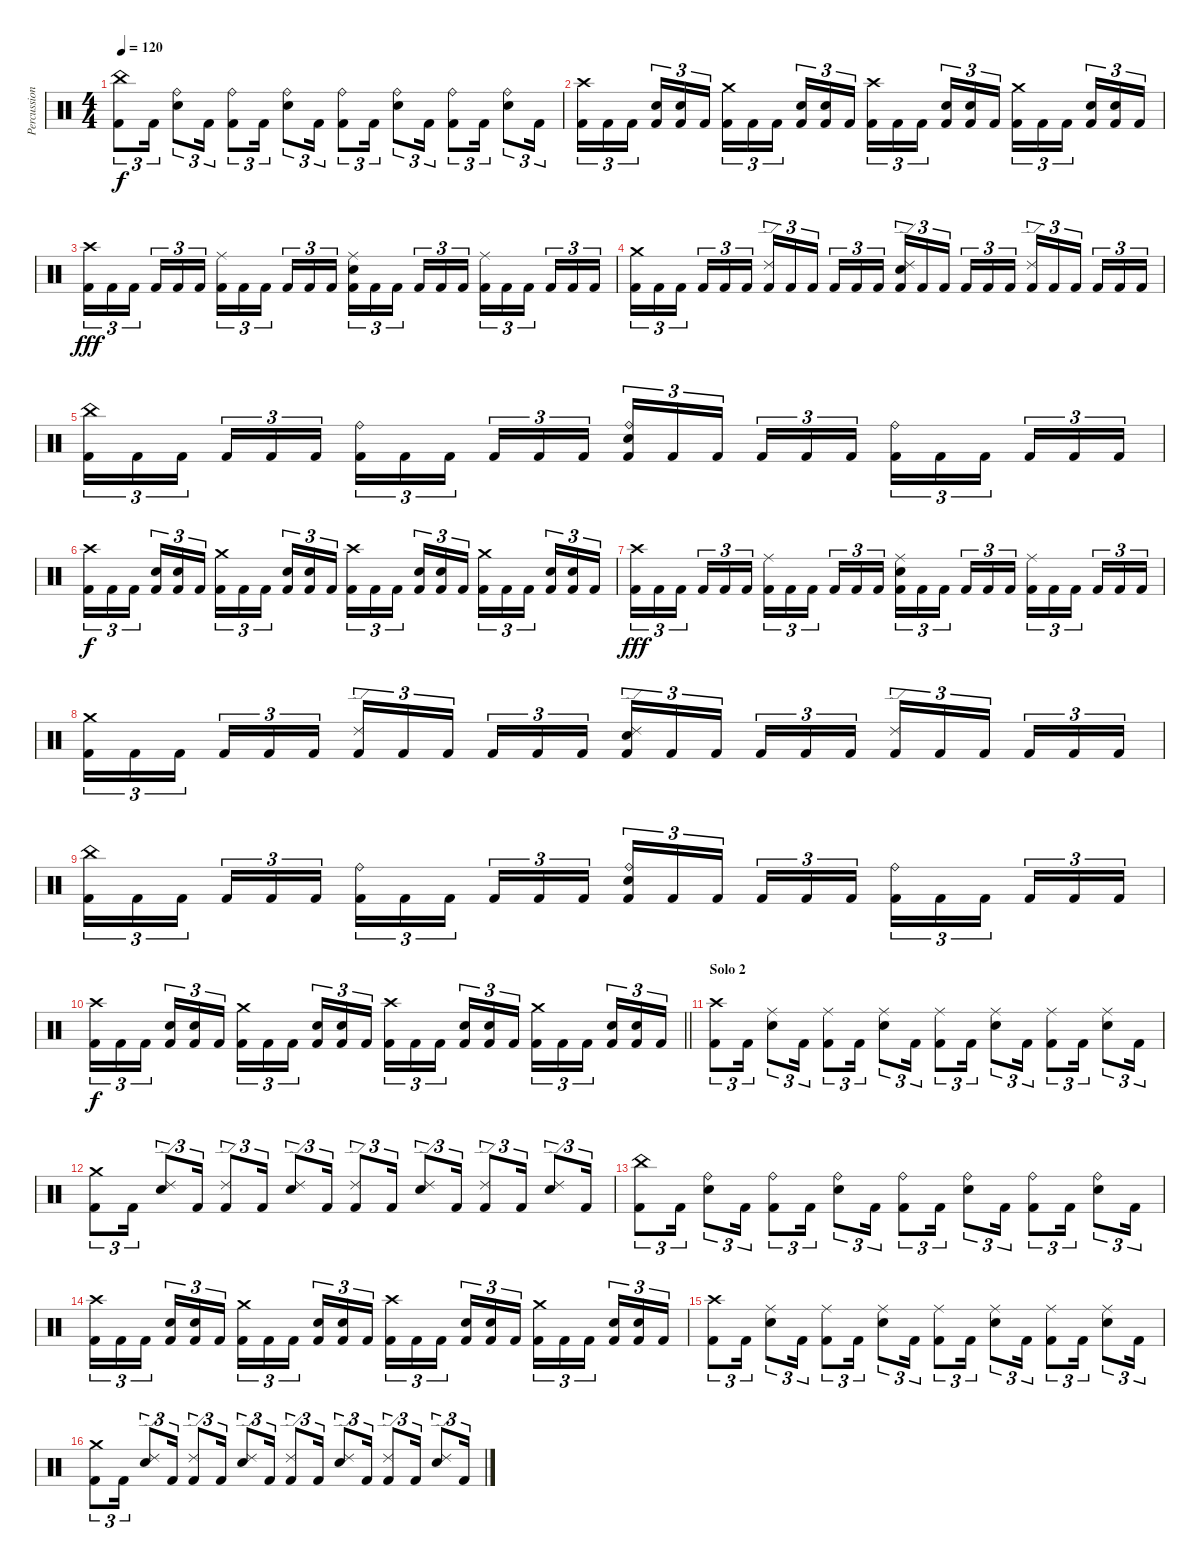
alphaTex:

\track ("Percussion" "Percussion") {instrument percussion}
\staff {score}
\articulation defaults
\ts (4 4)
\tempo 120
\clef neutral
\ks c
("China (hit)" "Kick (hit) 2").8{tu (3 2) dy f} "Kick (hit) 2".16{tu (3 2)} ("Ride (bell)" "Electric Snare (hit)").8{tu (3 2)} "Kick (hit) 2".16{tu (3 2)} ("Ride (bell)" "Kick (hit) 2").8{tu (3 2)} "Kick (hit) 2".16{tu (3 2)} ("Ride (bell)" "Electric Snare (hit)").8{tu (3 2)} "Kick (hit) 2".16{tu (3 2)} ("Ride (bell)" "Kick (hit) 2").8{tu (3 2)} "Kick (hit) 2".16{tu (3 2)} ("Ride (bell)" "Electric Snare (hit)").8{tu (3 2)} "Kick (hit) 2".16{tu (3 2)} ("Ride (bell)" "Kick (hit) 2").8{tu (3 2)} "Kick (hit) 2".16{tu (3 2)} ("Ride (bell)" "Electric Snare (hit)").8{tu (3 2)} "Kick (hit) 2".16{tu (3 2)} |
("Crash high (hit)" "Kick (hit) 2").16{tu (3 2)} "Kick (hit) 2".16{tu (3 2)} "Kick (hit) 2".16{tu (3 2) beam splitsecondary} ("Electric Snare (hit)" "Kick (hit) 2").16{tu (3 2)} ("Electric Snare (hit)" "Kick (hit) 2").16{tu (3 2)} "Kick (hit) 2".16{tu (3 2)} ("Crash medium (hit)" "Kick (hit) 2").16{tu (3 2)} "Kick (hit) 2".16{tu (3 2)} "Kick (hit) 2".16{tu (3 2) beam splitsecondary} ("Electric Snare (hit)" "Kick (hit) 2").16{tu (3 2)} ("Electric Snare (hit)" "Kick (hit) 2").16{tu (3 2)} "Kick (hit) 2".16{tu (3 2)} ("Crash high (hit)" "Kick (hit) 2").16{tu (3 2)} "Kick (hit) 2".16{tu (3 2)} "Kick (hit) 2".16{tu (3 2) beam splitsecondary} ("Electric Snare (hit)" "Kick (hit) 2").16{tu (3 2)} ("Electric Snare (hit)" "Kick (hit) 2").16{tu (3 2)} "Kick (hit) 2".16{tu (3 2)} ("Crash medium (hit)" "Kick (hit) 2").16{tu (3 2)} "Kick (hit) 2".16{tu (3 2)} "Kick (hit) 2".16{tu (3 2) beam splitsecondary} ("Electric Snare (hit)" "Kick (hit) 2").16{tu (3 2)} ("Electric Snare (hit)" "Kick (hit) 2").16{tu (3 2)} "Kick (hit) 2".16{tu (3 2)} |
("Crash high (hit)" "Kick (hit) 2").16{tu (3 2) dy fff} "Kick (hit) 2".16{tu (3 2)} "Kick (hit) 2".16{tu (3 2) beam splitsecondary} "Kick (hit) 2".16{tu (3 2)} "Kick (hit) 2".16{tu (3 2)} "Kick (hit) 2".16{tu (3 2)} ("Ride (middle)" "Kick (hit) 2").16{tu (3 2)} "Kick (hit) 2".16{tu (3 2)} "Kick (hit) 2".16{tu (3 2) beam splitsecondary} "Kick (hit) 2".16{tu (3 2)} "Kick (hit) 2".16{tu (3 2)} "Kick (hit) 2".16{tu (3 2)} ("Ride (middle)" "Electric Snare (hit)" "Kick (hit) 2").16{tu (3 2)} "Kick (hit) 2".16{tu (3 2)} "Kick (hit) 2".16{tu (3 2) beam splitsecondary} "Kick (hit) 2".16{tu (3 2)} "Kick (hit) 2".16{tu (3 2)} "Kick (hit) 2".16{tu (3 2)} ("Ride (middle)" "Kick (hit) 2").16{tu (3 2)} "Kick (hit) 2".16{tu (3 2)} "Kick (hit) 2".16{tu (3 2) beam splitsecondary} "Kick (hit) 2".16{tu (3 2)} "Kick (hit) 2".16{tu (3 2)} "Kick (hit) 2".16{tu (3 2)} |
("Crash medium (hit)" "Kick (hit) 2").16{tu (3 2)} "Kick (hit) 2".16{tu (3 2)} "Kick (hit) 2".16{tu (3 2) beam splitsecondary} "Kick (hit) 2".16{tu (3 2)} "Kick (hit) 2".16{tu (3 2)} "Kick (hit) 2".16{tu (3 2)} ("Ride (edge) 2" "Kick (hit) 2").16{tu (3 2)} "Kick (hit) 2".16{tu (3 2)} "Kick (hit) 2".16{tu (3 2) beam splitsecondary} "Kick (hit) 2".16{tu (3 2)} "Kick (hit) 2".16{tu (3 2)} "Kick (hit) 2".16{tu (3 2)} ("Ride (edge) 2" "Electric Snare (hit)" "Kick (hit) 2").16{tu (3 2)} "Kick (hit) 2".16{tu (3 2)} "Kick (hit) 2".16{tu (3 2) beam splitsecondary} "Kick (hit) 2".16{tu (3 2)} "Kick (hit) 2".16{tu (3 2)} "Kick (hit) 2".16{tu (3 2)} ("Ride (edge) 2" "Kick (hit) 2").16{tu (3 2)} "Kick (hit) 2".16{tu (3 2)} "Kick (hit) 2".16{tu (3 2) beam splitsecondary} "Kick (hit) 2".16{tu (3 2)} "Kick (hit) 2".16{tu (3 2)} "Kick (hit) 2".16{tu (3 2)} |
("China (hit)" "Kick (hit) 2").16{tu (3 2)} "Kick (hit) 2".16{tu (3 2)} "Kick (hit) 2".16{tu (3 2) beam splitsecondary} "Kick (hit) 2".16{tu (3 2)} "Kick (hit) 2".16{tu (3 2)} "Kick (hit) 2".16{tu (3 2)} ("Ride (bell)" "Kick (hit) 2").16{tu (3 2)} "Kick (hit) 2".16{tu (3 2)} "Kick (hit) 2".16{tu (3 2) beam splitsecondary} "Kick (hit) 2".16{tu (3 2)} "Kick (hit) 2".16{tu (3 2)} "Kick (hit) 2".16{tu (3 2)} ("Ride (bell)" "Electric Snare (hit)" "Kick (hit) 2").16{tu (3 2)} "Kick (hit) 2".16{tu (3 2)} "Kick (hit) 2".16{tu (3 2) beam splitsecondary} "Kick (hit) 2".16{tu (3 2)} "Kick (hit) 2".16{tu (3 2)} "Kick (hit) 2".16{tu (3 2)} ("Ride (bell)" "Kick (hit) 2").16{tu (3 2)} "Kick (hit) 2".16{tu (3 2)} "Kick (hit) 2".16{tu (3 2) beam splitsecondary} "Kick (hit) 2".16{tu (3 2)} "Kick (hit) 2".16{tu (3 2)} "Kick (hit) 2".16{tu (3 2)} |
("Crash high (hit)" "Kick (hit) 2").16{tu (3 2) dy f} "Kick (hit) 2".16{tu (3 2)} "Kick (hit) 2".16{tu (3 2) beam splitsecondary} ("Electric Snare (hit)" "Kick (hit) 2").16{tu (3 2)} ("Electric Snare (hit)" "Kick (hit) 2").16{tu (3 2)} "Kick (hit) 2".16{tu (3 2)} ("Crash medium (hit)" "Kick (hit) 2").16{tu (3 2)} "Kick (hit) 2".16{tu (3 2)} "Kick (hit) 2".16{tu (3 2) beam splitsecondary} ("Electric Snare (hit)" "Kick (hit) 2").16{tu (3 2)} ("Electric Snare (hit)" "Kick (hit) 2").16{tu (3 2)} "Kick (hit) 2".16{tu (3 2)} ("Crash high (hit)" "Kick (hit) 2").16{tu (3 2)} "Kick (hit) 2".16{tu (3 2)} "Kick (hit) 2".16{tu (3 2) beam splitsecondary} ("Electric Snare (hit)" "Kick (hit) 2").16{tu (3 2)} ("Electric Snare (hit)" "Kick (hit) 2").16{tu (3 2)} "Kick (hit) 2".16{tu (3 2)} ("Crash medium (hit)" "Kick (hit) 2").16{tu (3 2)} "Kick (hit) 2".16{tu (3 2)} "Kick (hit) 2".16{tu (3 2) beam splitsecondary} ("Electric Snare (hit)" "Kick (hit) 2").16{tu (3 2)} ("Electric Snare (hit)" "Kick (hit) 2").16{tu (3 2)} "Kick (hit) 2".16{tu (3 2)} |
("Crash high (hit)" "Kick (hit) 2").16{tu (3 2) dy fff} "Kick (hit) 2".16{tu (3 2)} "Kick (hit) 2".16{tu (3 2) beam splitsecondary} "Kick (hit) 2".16{tu (3 2)} "Kick (hit) 2".16{tu (3 2)} "Kick (hit) 2".16{tu (3 2)} ("Ride (middle)" "Kick (hit) 2").16{tu (3 2)} "Kick (hit) 2".16{tu (3 2)} "Kick (hit) 2".16{tu (3 2) beam splitsecondary} "Kick (hit) 2".16{tu (3 2)} "Kick (hit) 2".16{tu (3 2)} "Kick (hit) 2".16{tu (3 2)} ("Ride (middle)" "Electric Snare (hit)" "Kick (hit) 2").16{tu (3 2)} "Kick (hit) 2".16{tu (3 2)} "Kick (hit) 2".16{tu (3 2) beam splitsecondary} "Kick (hit) 2".16{tu (3 2)} "Kick (hit) 2".16{tu (3 2)} "Kick (hit) 2".16{tu (3 2)} ("Ride (middle)" "Kick (hit) 2").16{tu (3 2)} "Kick (hit) 2".16{tu (3 2)} "Kick (hit) 2".16{tu (3 2) beam splitsecondary} "Kick (hit) 2".16{tu (3 2)} "Kick (hit) 2".16{tu (3 2)} "Kick (hit) 2".16{tu (3 2)} |
("Crash medium (hit)" "Kick (hit) 2").16{tu (3 2)} "Kick (hit) 2".16{tu (3 2)} "Kick (hit) 2".16{tu (3 2) beam splitsecondary} "Kick (hit) 2".16{tu (3 2)} "Kick (hit) 2".16{tu (3 2)} "Kick (hit) 2".16{tu (3 2)} ("Ride (edge) 2" "Kick (hit) 2").16{tu (3 2)} "Kick (hit) 2".16{tu (3 2)} "Kick (hit) 2".16{tu (3 2) beam splitsecondary} "Kick (hit) 2".16{tu (3 2)} "Kick (hit) 2".16{tu (3 2)} "Kick (hit) 2".16{tu (3 2)} ("Ride (edge) 2" "Electric Snare (hit)" "Kick (hit) 2").16{tu (3 2)} "Kick (hit) 2".16{tu (3 2)} "Kick (hit) 2".16{tu (3 2) beam splitsecondary} "Kick (hit) 2".16{tu (3 2)} "Kick (hit) 2".16{tu (3 2)} "Kick (hit) 2".16{tu (3 2)} ("Ride (edge) 2" "Kick (hit) 2").16{tu (3 2)} "Kick (hit) 2".16{tu (3 2)} "Kick (hit) 2".16{tu (3 2) beam splitsecondary} "Kick (hit) 2".16{tu (3 2)} "Kick (hit) 2".16{tu (3 2)} "Kick (hit) 2".16{tu (3 2)} |
("China (hit)" "Kick (hit) 2").16{tu (3 2)} "Kick (hit) 2".16{tu (3 2)} "Kick (hit) 2".16{tu (3 2) beam splitsecondary} "Kick (hit) 2".16{tu (3 2)} "Kick (hit) 2".16{tu (3 2)} "Kick (hit) 2".16{tu (3 2)} ("Ride (bell)" "Kick (hit) 2").16{tu (3 2)} "Kick (hit) 2".16{tu (3 2)} "Kick (hit) 2".16{tu (3 2) beam splitsecondary} "Kick (hit) 2".16{tu (3 2)} "Kick (hit) 2".16{tu (3 2)} "Kick (hit) 2".16{tu (3 2)} ("Ride (bell)" "Electric Snare (hit)" "Kick (hit) 2").16{tu (3 2)} "Kick (hit) 2".16{tu (3 2)} "Kick (hit) 2".16{tu (3 2) beam splitsecondary} "Kick (hit) 2".16{tu (3 2)} "Kick (hit) 2".16{tu (3 2)} "Kick (hit) 2".16{tu (3 2)} ("Ride (bell)" "Kick (hit) 2").16{tu (3 2)} "Kick (hit) 2".16{tu (3 2)} "Kick (hit) 2".16{tu (3 2) beam splitsecondary} "Kick (hit) 2".16{tu (3 2)} "Kick (hit) 2".16{tu (3 2)} "Kick (hit) 2".16{tu (3 2)} |
\barLineRight lightlight
("Crash high (hit)" "Kick (hit) 2").16{tu (3 2) dy f} "Kick (hit) 2".16{tu (3 2)} "Kick (hit) 2".16{tu (3 2) beam splitsecondary} ("Electric Snare (hit)" "Kick (hit) 2").16{tu (3 2)} ("Electric Snare (hit)" "Kick (hit) 2").16{tu (3 2)} "Kick (hit) 2".16{tu (3 2)} ("Crash medium (hit)" "Kick (hit) 2").16{tu (3 2)} "Kick (hit) 2".16{tu (3 2)} "Kick (hit) 2".16{tu (3 2) beam splitsecondary} ("Electric Snare (hit)" "Kick (hit) 2").16{tu (3 2)} ("Electric Snare (hit)" "Kick (hit) 2").16{tu (3 2)} "Kick (hit) 2".16{tu (3 2)} ("Crash high (hit)" "Kick (hit) 2").16{tu (3 2)} "Kick (hit) 2".16{tu (3 2)} "Kick (hit) 2".16{tu (3 2) beam splitsecondary} ("Electric Snare (hit)" "Kick (hit) 2").16{tu (3 2)} ("Electric Snare (hit)" "Kick (hit) 2").16{tu (3 2)} "Kick (hit) 2".16{tu (3 2)} ("Crash medium (hit)" "Kick (hit) 2").16{tu (3 2)} "Kick (hit) 2".16{tu (3 2)} "Kick (hit) 2".16{tu (3 2) beam splitsecondary} ("Electric Snare (hit)" "Kick (hit) 2").16{tu (3 2)} ("Electric Snare (hit)" "Kick (hit) 2").16{tu (3 2)} "Kick (hit) 2".16{tu (3 2)} |
\section ("" "Solo 2")
("Crash high (hit)" "Kick (hit) 2").8{tu (3 2)} "Kick (hit) 2".16{tu (3 2)} ("Ride (middle)" "Electric Snare (hit)").8{tu (3 2)} "Kick (hit) 2".16{tu (3 2)} ("Ride (middle)" "Kick (hit) 2").8{tu (3 2)} "Kick (hit) 2".16{tu (3 2)} ("Ride (middle)" "Electric Snare (hit)").8{tu (3 2)} "Kick (hit) 2".16{tu (3 2)} ("Ride (middle)" "Kick (hit) 2").8{tu (3 2)} "Kick (hit) 2".16{tu (3 2)} ("Ride (middle)" "Electric Snare (hit)").8{tu (3 2)} "Kick (hit) 2".16{tu (3 2)} ("Ride (middle)" "Kick (hit) 2").8{tu (3 2)} "Kick (hit) 2".16{tu (3 2)} ("Ride (middle)" "Electric Snare (hit)").8{tu (3 2)} "Kick (hit) 2".16{tu (3 2)} |
("Crash medium (hit)" "Kick (hit) 2").8{tu (3 2)} "Kick (hit) 2".16{tu (3 2)} ("Ride (edge) 2" "Electric Snare (hit)").8{tu (3 2)} "Kick (hit) 2".16{tu (3 2)} ("Ride (edge) 2" "Kick (hit) 2").8{tu (3 2)} "Kick (hit) 2".16{tu (3 2)} ("Ride (edge) 2" "Electric Snare (hit)").8{tu (3 2)} "Kick (hit) 2".16{tu (3 2)} ("Ride (edge) 2" "Kick (hit) 2").8{tu (3 2)} "Kick (hit) 2".16{tu (3 2)} ("Ride (edge) 2" "Electric Snare (hit)").8{tu (3 2)} "Kick (hit) 2".16{tu (3 2)} ("Ride (edge) 2" "Kick (hit) 2").8{tu (3 2)} "Kick (hit) 2".16{tu (3 2)} ("Ride (edge) 2" "Electric Snare (hit)").8{tu (3 2)} "Kick (hit) 2".16{tu (3 2)} |
("China (hit)" "Kick (hit) 2").8{tu (3 2)} "Kick (hit) 2".16{tu (3 2)} ("Ride (bell)" "Electric Snare (hit)").8{tu (3 2)} "Kick (hit) 2".16{tu (3 2)} ("Ride (bell)" "Kick (hit) 2").8{tu (3 2)} "Kick (hit) 2".16{tu (3 2)} ("Ride (bell)" "Electric Snare (hit)").8{tu (3 2)} "Kick (hit) 2".16{tu (3 2)} ("Ride (bell)" "Kick (hit) 2").8{tu (3 2)} "Kick (hit) 2".16{tu (3 2)} ("Ride (bell)" "Electric Snare (hit)").8{tu (3 2)} "Kick (hit) 2".16{tu (3 2)} ("Ride (bell)" "Kick (hit) 2").8{tu (3 2)} "Kick (hit) 2".16{tu (3 2)} ("Ride (bell)" "Electric Snare (hit)").8{tu (3 2)} "Kick (hit) 2".16{tu (3 2)} |
("Crash high (hit)" "Kick (hit) 2").16{tu (3 2)} "Kick (hit) 2".16{tu (3 2)} "Kick (hit) 2".16{tu (3 2) beam splitsecondary} ("Electric Snare (hit)" "Kick (hit) 2").16{tu (3 2)} ("Electric Snare (hit)" "Kick (hit) 2").16{tu (3 2)} "Kick (hit) 2".16{tu (3 2)} ("Crash medium (hit)" "Kick (hit) 2").16{tu (3 2)} "Kick (hit) 2".16{tu (3 2)} "Kick (hit) 2".16{tu (3 2) beam splitsecondary} ("Electric Snare (hit)" "Kick (hit) 2").16{tu (3 2)} ("Electric Snare (hit)" "Kick (hit) 2").16{tu (3 2)} "Kick (hit) 2".16{tu (3 2)} ("Crash high (hit)" "Kick (hit) 2").16{tu (3 2)} "Kick (hit) 2".16{tu (3 2)} "Kick (hit) 2".16{tu (3 2) beam splitsecondary} ("Electric Snare (hit)" "Kick (hit) 2").16{tu (3 2)} ("Electric Snare (hit)" "Kick (hit) 2").16{tu (3 2)} "Kick (hit) 2".16{tu (3 2)} ("Crash medium (hit)" "Kick (hit) 2").16{tu (3 2)} "Kick (hit) 2".16{tu (3 2)} "Kick (hit) 2".16{tu (3 2) beam splitsecondary} ("Electric Snare (hit)" "Kick (hit) 2").16{tu (3 2)} ("Electric Snare (hit)" "Kick (hit) 2").16{tu (3 2)} "Kick (hit) 2".16{tu (3 2)} |
("Crash high (hit)" "Kick (hit) 2").8{tu (3 2)} "Kick (hit) 2".16{tu (3 2)} ("Ride (middle)" "Electric Snare (hit)").8{tu (3 2)} "Kick (hit) 2".16{tu (3 2)} ("Ride (middle)" "Kick (hit) 2").8{tu (3 2)} "Kick (hit) 2".16{tu (3 2)} ("Ride (middle)" "Electric Snare (hit)").8{tu (3 2)} "Kick (hit) 2".16{tu (3 2)} ("Ride (middle)" "Kick (hit) 2").8{tu (3 2)} "Kick (hit) 2".16{tu (3 2)} ("Ride (middle)" "Electric Snare (hit)").8{tu (3 2)} "Kick (hit) 2".16{tu (3 2)} ("Ride (middle)" "Kick (hit) 2").8{tu (3 2)} "Kick (hit) 2".16{tu (3 2)} ("Ride (middle)" "Electric Snare (hit)").8{tu (3 2)} "Kick (hit) 2".16{tu (3 2)} |
("Crash medium (hit)" "Kick (hit) 2").8{tu (3 2)} "Kick (hit) 2".16{tu (3 2)} ("Ride (edge) 2" "Electric Snare (hit)").8{tu (3 2)} "Kick (hit) 2".16{tu (3 2)} ("Ride (edge) 2" "Kick (hit) 2").8{tu (3 2)} "Kick (hit) 2".16{tu (3 2)} ("Ride (edge) 2" "Electric Snare (hit)").8{tu (3 2)} "Kick (hit) 2".16{tu (3 2)} ("Ride (edge) 2" "Kick (hit) 2").8{tu (3 2)} "Kick (hit) 2".16{tu (3 2)} ("Ride (edge) 2" "Electric Snare (hit)").8{tu (3 2)} "Kick (hit) 2".16{tu (3 2)} ("Ride (edge) 2" "Kick (hit) 2").8{tu (3 2)} "Kick (hit) 2".16{tu (3 2)} ("Ride (edge) 2" "Electric Snare (hit)").8{tu (3 2)} "Kick (hit) 2".16{tu (3 2)}
